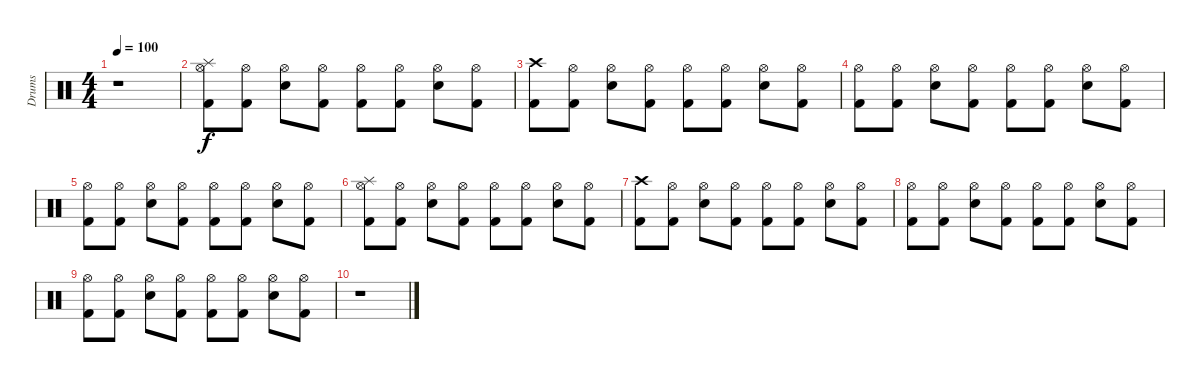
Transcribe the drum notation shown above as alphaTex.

\track ("Drums" "Drums") {instrument percussion}
\staff {score}
\articulation defaults
\ts (4 4)
\tempo 100
\clef neutral
\ks c
r.1{dy f} |
("Kick (hit) 2" "Splash (hit)" "Hi-Hat (open)").8 ("Kick (hit) 2" "Hi-Hat (open)").8 ("Electric Snare (hit)" "Hi-Hat (open)").8 ("Kick (hit) 2" "Hi-Hat (open)").8 ("Kick (hit) 2" "Hi-Hat (open)").8 ("Kick (hit) 2" "Hi-Hat (open)").8 ("Electric Snare (hit)" "Hi-Hat (open)").8 ("Kick (hit) 2" "Hi-Hat (open)").8 |
("Kick (hit) 2" "Crash high (hit)").8 ("Kick (hit) 2" "Hi-Hat (open)").8 ("Electric Snare (hit)" "Hi-Hat (open)").8 ("Kick (hit) 2" "Hi-Hat (open)").8 ("Kick (hit) 2" "Hi-Hat (open)").8 ("Kick (hit) 2" "Hi-Hat (open)").8 ("Electric Snare (hit)" "Hi-Hat (open)").8 ("Kick (hit) 2" "Hi-Hat (open)").8 |
("Kick (hit) 2" "Hi-Hat (open)").8 ("Kick (hit) 2" "Hi-Hat (open)").8 ("Electric Snare (hit)" "Hi-Hat (open)").8 ("Kick (hit) 2" "Hi-Hat (open)").8 ("Kick (hit) 2" "Hi-Hat (open)").8 ("Kick (hit) 2" "Hi-Hat (open)").8 ("Electric Snare (hit)" "Hi-Hat (open)").8 ("Kick (hit) 2" "Hi-Hat (open)").8 |
("Kick (hit) 2" "Hi-Hat (open)").8 ("Kick (hit) 2" "Hi-Hat (open)").8 ("Electric Snare (hit)" "Hi-Hat (open)").8 ("Kick (hit) 2" "Hi-Hat (open)").8 ("Kick (hit) 2" "Hi-Hat (open)").8 ("Kick (hit) 2" "Hi-Hat (open)").8 ("Electric Snare (hit)" "Hi-Hat (open)").8 ("Kick (hit) 2" "Hi-Hat (open)").8 |
("Kick (hit) 2" "Splash (hit)" "Hi-Hat (open)").8 ("Kick (hit) 2" "Hi-Hat (open)").8 ("Electric Snare (hit)" "Hi-Hat (open)").8 ("Kick (hit) 2" "Hi-Hat (open)").8 ("Kick (hit) 2" "Hi-Hat (open)").8 ("Kick (hit) 2" "Hi-Hat (open)").8 ("Electric Snare (hit)" "Hi-Hat (open)").8 ("Kick (hit) 2" "Hi-Hat (open)").8 |
("Kick (hit) 2" "Crash high (hit)").8 ("Kick (hit) 2" "Hi-Hat (open)").8 ("Electric Snare (hit)" "Hi-Hat (open)").8 ("Kick (hit) 2" "Hi-Hat (open)").8 ("Kick (hit) 2" "Hi-Hat (open)").8 ("Kick (hit) 2" "Hi-Hat (open)").8 ("Electric Snare (hit)" "Hi-Hat (open)").8 ("Kick (hit) 2" "Hi-Hat (open)").8 |
("Kick (hit) 2" "Hi-Hat (open)").8 ("Kick (hit) 2" "Hi-Hat (open)").8 ("Electric Snare (hit)" "Hi-Hat (open)").8 ("Kick (hit) 2" "Hi-Hat (open)").8 ("Kick (hit) 2" "Hi-Hat (open)").8 ("Kick (hit) 2" "Hi-Hat (open)").8 ("Electric Snare (hit)" "Hi-Hat (open)").8 ("Kick (hit) 2" "Hi-Hat (open)").8 |
("Kick (hit) 2" "Hi-Hat (open)").8 ("Kick (hit) 2" "Hi-Hat (open)").8 ("Electric Snare (hit)" "Hi-Hat (open)").8 ("Kick (hit) 2" "Hi-Hat (open)").8 ("Kick (hit) 2" "Hi-Hat (open)").8 ("Kick (hit) 2" "Hi-Hat (open)").8 ("Electric Snare (hit)" "Hi-Hat (open)").8 ("Kick (hit) 2" "Hi-Hat (open)").8 |
r.1
